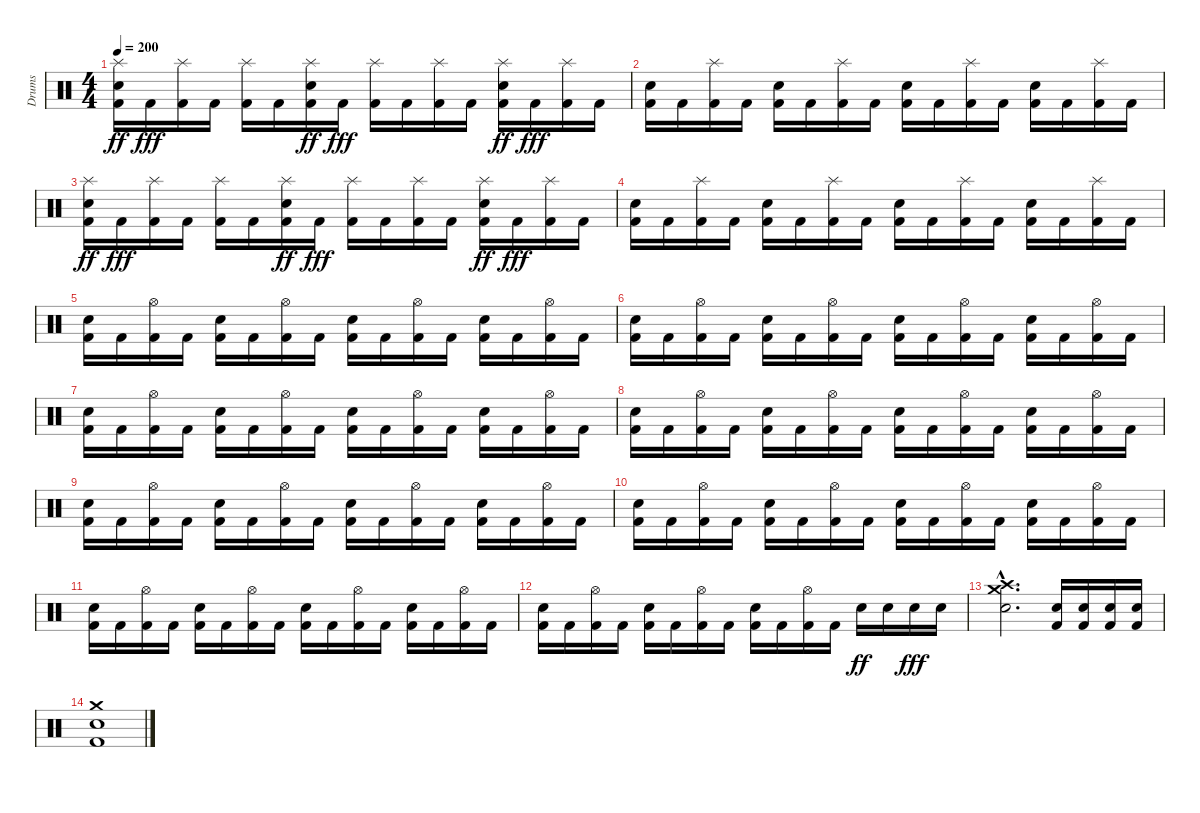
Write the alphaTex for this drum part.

\track ("Drums" "Drums") {instrument percussion}
\staff {score}
\articulation defaults
\ts (4 4)
\tempo 200
\clef neutral
\ks c
("Kick (hit) 2" "Electric Snare (hit)" "Splash (hit)").16{dy ff} "Kick (hit) 2".16{dy fff} ("Splash (hit)" "Kick (hit) 2").16 "Kick (hit) 2".16 ("Splash (hit)" "Kick (hit) 2").16 "Kick (hit) 2".16 ("Kick (hit) 2" "Electric Snare (hit)" "Splash (hit)").16{dy ff} "Kick (hit) 2".16{dy fff} ("Splash (hit)" "Kick (hit) 2").16 "Kick (hit) 2".16 ("Splash (hit)" "Kick (hit) 2").16 "Kick (hit) 2".16 ("Kick (hit) 2" "Electric Snare (hit)" "Splash (hit)").16{dy ff} "Kick (hit) 2".16{dy fff} ("Splash (hit)" "Kick (hit) 2").16 "Kick (hit) 2".16 |
("Electric Snare (hit)" "Kick (hit) 2").16 "Kick (hit) 2".16 ("Splash (hit)" "Kick (hit) 2").16 "Kick (hit) 2".16 ("Electric Snare (hit)" "Kick (hit) 2").16 "Kick (hit) 2".16 ("Splash (hit)" "Kick (hit) 2").16 "Kick (hit) 2".16 ("Electric Snare (hit)" "Kick (hit) 2").16 "Kick (hit) 2".16 ("Splash (hit)" "Kick (hit) 2").16 "Kick (hit) 2".16 ("Electric Snare (hit)" "Kick (hit) 2").16 "Kick (hit) 2".16 ("Splash (hit)" "Kick (hit) 2").16 "Kick (hit) 2".16 |
("Kick (hit) 2" "Electric Snare (hit)" "Splash (hit)").16{dy ff} "Kick (hit) 2".16{dy fff} ("Splash (hit)" "Kick (hit) 2").16 "Kick (hit) 2".16 ("Splash (hit)" "Kick (hit) 2").16 "Kick (hit) 2".16 ("Kick (hit) 2" "Electric Snare (hit)" "Splash (hit)").16{dy ff} "Kick (hit) 2".16{dy fff} ("Splash (hit)" "Kick (hit) 2").16 "Kick (hit) 2".16 ("Splash (hit)" "Kick (hit) 2").16 "Kick (hit) 2".16 ("Kick (hit) 2" "Electric Snare (hit)" "Splash (hit)").16{dy ff} "Kick (hit) 2".16{dy fff} ("Splash (hit)" "Kick (hit) 2").16 "Kick (hit) 2".16 |
("Electric Snare (hit)" "Kick (hit) 2").16 "Kick (hit) 2".16 ("Splash (hit)" "Kick (hit) 2").16 "Kick (hit) 2".16 ("Electric Snare (hit)" "Kick (hit) 2").16 "Kick (hit) 2".16 ("Splash (hit)" "Kick (hit) 2").16 "Kick (hit) 2".16 ("Electric Snare (hit)" "Kick (hit) 2").16 "Kick (hit) 2".16 ("Splash (hit)" "Kick (hit) 2").16 "Kick (hit) 2".16 ("Electric Snare (hit)" "Kick (hit) 2").16 "Kick (hit) 2".16 ("Splash (hit)" "Kick (hit) 2").16 "Kick (hit) 2".16 |
("Snare (hit) 2" "Kick (hit) 2").16 "Kick (hit) 2".16 ("Hi-Hat (open)" "Kick (hit) 2").16 "Kick (hit) 2".16 ("Snare (hit) 2" "Kick (hit) 2").16 "Kick (hit) 2".16 ("Hi-Hat (open)" "Kick (hit) 2").16 "Kick (hit) 2".16 ("Snare (hit) 2" "Kick (hit) 2").16 "Kick (hit) 2".16 ("Hi-Hat (open)" "Kick (hit) 2").16 "Kick (hit) 2".16 ("Snare (hit) 2" "Kick (hit) 2").16 "Kick (hit) 2".16 ("Hi-Hat (open)" "Kick (hit) 2").16 "Kick (hit) 2".16 |
("Snare (hit) 2" "Kick (hit) 2").16 "Kick (hit) 2".16 ("Hi-Hat (open)" "Kick (hit) 2").16 "Kick (hit) 2".16 ("Snare (hit) 2" "Kick (hit) 2").16 "Kick (hit) 2".16 ("Hi-Hat (open)" "Kick (hit) 2").16 "Kick (hit) 2".16 ("Snare (hit) 2" "Kick (hit) 2").16 "Kick (hit) 2".16 ("Hi-Hat (open)" "Kick (hit) 2").16 "Kick (hit) 2".16 ("Snare (hit) 2" "Kick (hit) 2").16 "Kick (hit) 2".16 ("Hi-Hat (open)" "Kick (hit) 2").16 "Kick (hit) 2".16 |
("Snare (hit) 2" "Kick (hit) 2").16 "Kick (hit) 2".16 ("Hi-Hat (open)" "Kick (hit) 2").16 "Kick (hit) 2".16 ("Snare (hit) 2" "Kick (hit) 2").16 "Kick (hit) 2".16 ("Hi-Hat (open)" "Kick (hit) 2").16 "Kick (hit) 2".16 ("Snare (hit) 2" "Kick (hit) 2").16 "Kick (hit) 2".16 ("Hi-Hat (open)" "Kick (hit) 2").16 "Kick (hit) 2".16 ("Snare (hit) 2" "Kick (hit) 2").16 "Kick (hit) 2".16 ("Hi-Hat (open)" "Kick (hit) 2").16 "Kick (hit) 2".16 |
("Snare (hit) 2" "Kick (hit) 2").16 "Kick (hit) 2".16 ("Hi-Hat (open)" "Kick (hit) 2").16 "Kick (hit) 2".16 ("Snare (hit) 2" "Kick (hit) 2").16 "Kick (hit) 2".16 ("Hi-Hat (open)" "Kick (hit) 2").16 "Kick (hit) 2".16 ("Snare (hit) 2" "Kick (hit) 2").16 "Kick (hit) 2".16 ("Hi-Hat (open)" "Kick (hit) 2").16 "Kick (hit) 2".16 ("Snare (hit) 2" "Kick (hit) 2").16 "Kick (hit) 2".16 ("Hi-Hat (open)" "Kick (hit) 2").16 "Kick (hit) 2".16 |
("Snare (hit) 2" "Kick (hit) 2").16 "Kick (hit) 2".16 ("Hi-Hat (open)" "Kick (hit) 2").16 "Kick (hit) 2".16 ("Snare (hit) 2" "Kick (hit) 2").16 "Kick (hit) 2".16 ("Hi-Hat (open)" "Kick (hit) 2").16 "Kick (hit) 2".16 ("Snare (hit) 2" "Kick (hit) 2").16 "Kick (hit) 2".16 ("Hi-Hat (open)" "Kick (hit) 2").16 "Kick (hit) 2".16 ("Snare (hit) 2" "Kick (hit) 2").16 "Kick (hit) 2".16 ("Hi-Hat (open)" "Kick (hit) 2").16 "Kick (hit) 2".16 |
("Snare (hit) 2" "Kick (hit) 2").16 "Kick (hit) 2".16 ("Hi-Hat (open)" "Kick (hit) 2").16 "Kick (hit) 2".16 ("Snare (hit) 2" "Kick (hit) 2").16 "Kick (hit) 2".16 ("Hi-Hat (open)" "Kick (hit) 2").16 "Kick (hit) 2".16 ("Snare (hit) 2" "Kick (hit) 2").16 "Kick (hit) 2".16 ("Hi-Hat (open)" "Kick (hit) 2").16 "Kick (hit) 2".16 ("Snare (hit) 2" "Kick (hit) 2").16 "Kick (hit) 2".16 ("Hi-Hat (open)" "Kick (hit) 2").16 "Kick (hit) 2".16 |
("Snare (hit) 2" "Kick (hit) 2").16 "Kick (hit) 2".16 ("Hi-Hat (open)" "Kick (hit) 2").16 "Kick (hit) 2".16 ("Snare (hit) 2" "Kick (hit) 2").16 "Kick (hit) 2".16 ("Hi-Hat (open)" "Kick (hit) 2").16 "Kick (hit) 2".16 ("Snare (hit) 2" "Kick (hit) 2").16 "Kick (hit) 2".16 ("Hi-Hat (open)" "Kick (hit) 2").16 "Kick (hit) 2".16 ("Snare (hit) 2" "Kick (hit) 2").16 "Kick (hit) 2".16 ("Hi-Hat (open)" "Kick (hit) 2").16 "Kick (hit) 2".16 |
("Snare (hit) 2" "Kick (hit) 2").16 "Kick (hit) 2".16 ("Hi-Hat (open)" "Kick (hit) 2").16 "Kick (hit) 2".16 ("Snare (hit) 2" "Kick (hit) 2").16 "Kick (hit) 2".16 ("Hi-Hat (open)" "Kick (hit) 2").16 "Kick (hit) 2".16 ("Snare (hit) 2" "Kick (hit) 2").16 "Kick (hit) 2".16 ("Hi-Hat (open)" "Kick (hit) 2").16 "Kick (hit) 2".16 "Electric Snare (hit)".16{dy ff} "Electric Snare (hit)".16 "Electric Snare (hit)".16{dy fff} "Electric Snare (hit)".16 |
("Crash high (hit)"{hac} "Crash medium (hit)"{hac} "Electric Snare (hit)"{hac}).2{d} ("Kick (hit) 2" "Electric Snare (hit)").16 ("Kick (hit) 2" "Electric Snare (hit)").16 ("Kick (hit) 2" "Electric Snare (hit)").16 ("Kick (hit) 2" "Electric Snare (hit)").16 |
("Electric Snare (hit)" "Crash medium (hit)" "Kick (hit) 2").1
